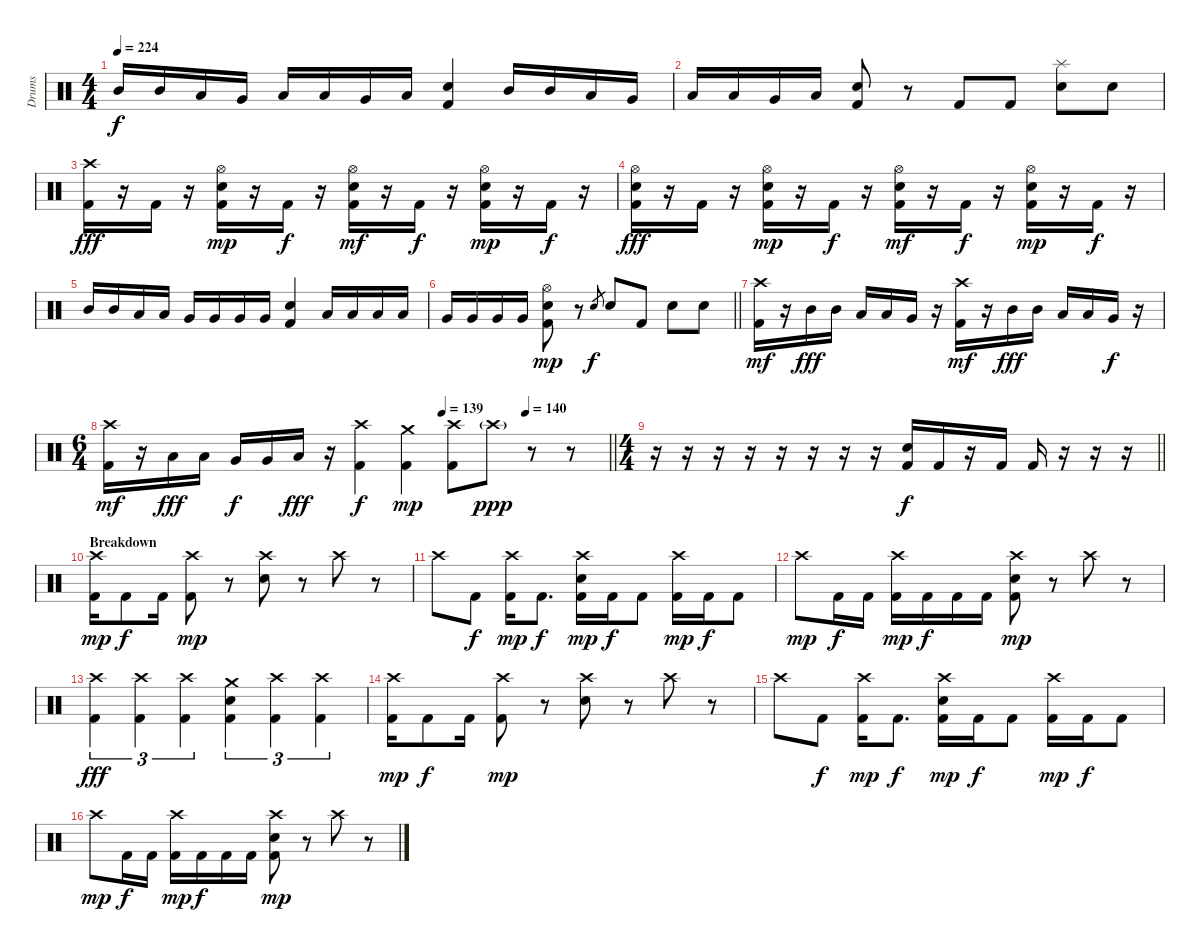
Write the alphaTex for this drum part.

\track ("Drums" "Drums") {instrument percussion}
\staff {score}
\articulation defaults
\ts (4 4)
\tempo 224
\clef neutral
\ks c "Mid Tom (hit)".16{dy f} "Mid Tom (hit)".16 "Low Tom (hit)".16 "Very Low Tom (hit)".16 "Low Tom (hit)".16 "Low Tom (hit)".16 "Very Low Tom (hit)".16 "Low Floor Tom (hit)".16
("Snare (hit) 2" "Kick (hit) 2").4 "Mid Tom (hit)".16 "Mid Tom (hit)".16 "Low Tom (hit)".16 "Very Low Tom (hit)".16 |
"Low Tom (hit)".16 "Low Tom (hit)".16 "Very Low Tom (hit)".16 "Low Floor Tom (hit)".16 ("Snare (hit) 2" "Kick (hit) 2").8 r.8 "Kick (hit) 2".8 "Kick (hit) 2".8 ("Splash (hit)" "Snare (hit) 2").8 "Snare (hit) 2".8 |
("Crash high (hit)" "Kick (hit) 2").16{dy fff} r.16 "Kick (hit) 2".16 r.16 ("Hi-Hat (open)" "Snare (hit) 2" "Kick (hit) 2").16{dy mp} r.16 "Kick (hit) 2".16{dy f} r.16 ("Hi-Hat (open)" "Snare (hit) 2" "Kick (hit) 2").16{dy mf} r.16 "Kick (hit) 2".16{dy f} r.16 ("Hi-Hat (open)" "Snare (hit) 2" "Kick (hit) 2").16{dy mp} r.16 "Kick (hit) 2".16{dy f} r.16 |
("Hi-Hat (open)" "Snare (hit) 2" "Kick (hit) 2").16{dy fff} r.16 "Kick (hit) 2".16 r.16 ("Hi-Hat (open)" "Snare (hit) 2" "Kick (hit) 2").16{dy mp} r.16 "Kick (hit) 2".16{dy f} r.16 ("Hi-Hat (open)" "Snare (hit) 2" "Kick (hit) 2").16{dy mf} r.16 "Kick (hit) 2".16{dy f} r.16 ("Hi-Hat (open)" "Snare (hit) 2" "Kick (hit) 2").16{dy mp} r.16 "Kick (hit) 2".16{dy f} r.16 |
"Mid Tom (hit)".16 "Mid Tom (hit)".16 "Low Tom (hit)".16 "Low Tom (hit)".16 "Very Low Tom (hit)".16 "Very Low Tom (hit)".16 "Very Low Tom (hit)".16 "Very Low Tom (hit)".16 ("Snare (hit) 2" "Kick (hit) 2").4 "Low Tom (hit)".16 "Low Tom (hit)".16 "Low Tom (hit)".16 "Low Tom (hit)".16 |
\barLineRight lightlight "Very Low Tom (hit)".16 "Very Low Tom (hit)".16 "Very Low Tom (hit)".16 "Very Low Tom (hit)".16
("Hi-Hat (open)" "Snare (hit) 2" "Kick (hit) 2").8{dy mp} r.8 "Snare (hit) 2".8{gr dy f} "Snare (hit) 2".8 "Kick (hit) 2".8 "Snare (hit) 2".8 "Snare (hit) 2".8 |
("Crash high (hit)" "Kick (hit) 2").16{dy mf} r.16 "Mid Tom (hit)".16{dy fff} "Mid Tom (hit)".16 "Low Tom (hit)".16 "Low Tom (hit)".16 "Very Low Tom (hit)".16 r.16 ("Crash high (hit)" "Kick (hit) 2").16{dy mf} r.16 "Mid Tom (hit)".16{dy fff} "Mid Tom (hit)".16 "Low Tom (hit)".16 "Low Tom (hit)".16 "Very Low Tom (hit)".16{dy f} r.16 |
\ts (6 4)
\tempo (139 0.6666666666666666)
\tempo (140 0.8333333333333334)
\barLineRight lightlight
("Crash high (hit)" "Kick (hit) 2").16{dy mf} r.16 "Low Tom (hit)".16{dy fff} "Low Tom (hit)".16 "Very Low Tom (hit)".16{dy f} "Very Low Tom (hit)".16 "Low Floor Tom (hit)".16{dy fff} r.16 ("Crash high (hit)" "Kick (hit) 2").4{dy f} ("Crash medium (hit)" "Kick (hit) 2").4{dy mp} ("Crash high (hit)" "Kick (hit) 2").8 "Crash high (hit)"{g}.8{dy ppp} r.8 r.8 |
\ts (4 4)
\barLineRight lightlight
r.16 r.16 r.16 r.16 r.16 r.16 r.16 r.16 ("Snare (hit) 2" "Kick (hit) 2").16{dy f} "Kick (hit) 2".16 r.16 "Kick (hit) 2".16 "Kick (hit) 2".16 r.16 r.16 r.16 |
\section ("" "Breakdown")
("Crash high (hit)" "Kick (hit) 2").16{dy mp} "Kick (hit) 2".8{dy f} "Kick (hit) 2".16 ("Crash high (hit)" "Kick (hit) 2").8{dy mp} r.8 ("Crash high (hit)" "Snare (hit) 2").8 r.8 "Crash high (hit)".8 r.8 |
"Crash high (hit)".8 "Kick (hit) 2".8{dy f} ("Crash high (hit)" "Kick (hit) 2").16{dy mp} "Kick (hit) 2".8{d dy f} ("Crash high (hit)" "Snare (hit) 2" "Kick (hit) 2").16{dy mp} "Kick (hit) 2".16{dy f} "Kick (hit) 2".8 ("Crash high (hit)" "Kick (hit) 2").16{dy mp} "Kick (hit) 2".16{dy f} "Kick (hit) 2".8 |
"Crash high (hit)".8{dy mp} "Kick (hit) 2".16{dy f} "Kick (hit) 2".16 ("Crash high (hit)" "Kick (hit) 2").16{dy mp} "Kick (hit) 2".16{dy f} "Kick (hit) 2".16 "Kick (hit) 2".16 ("Crash high (hit)" "Snare (hit) 2" "Kick (hit) 2").8{dy mp} r.8 "Crash high (hit)".8 r.8 |
("Crash high (hit)" "Kick (hit) 2").4{tu (3 2) dy fff} ("Crash high (hit)" "Kick (hit) 2").4{tu (3 2)} ("Crash high (hit)" "Kick (hit) 2").4{tu (3 2)} ("Crash medium (hit)" "Snare (hit) 2" "Kick (hit) 2").4{tu (3 2)} ("Crash high (hit)" "Kick (hit) 2").4{tu (3 2)} ("Crash high (hit)" "Kick (hit) 2").4{tu (3 2)} |
("Crash high (hit)" "Kick (hit) 2").16{dy mp} "Kick (hit) 2".8{dy f} "Kick (hit) 2".16 ("Crash high (hit)" "Kick (hit) 2").8{dy mp} r.8 ("Crash high (hit)" "Snare (hit) 2").8 r.8 "Crash high (hit)".8 r.8 |
"Crash high (hit)".8 "Kick (hit) 2".8{dy f} ("Crash high (hit)" "Kick (hit) 2").16{dy mp} "Kick (hit) 2".8{d dy f} ("Crash high (hit)" "Snare (hit) 2" "Kick (hit) 2").16{dy mp} "Kick (hit) 2".16{dy f} "Kick (hit) 2".8 ("Crash high (hit)" "Kick (hit) 2").16{dy mp} "Kick (hit) 2".16{dy f} "Kick (hit) 2".8 |
"Crash high (hit)".8{dy mp} "Kick (hit) 2".16{dy f} "Kick (hit) 2".16 ("Crash high (hit)" "Kick (hit) 2").16{dy mp} "Kick (hit) 2".16{dy f} "Kick (hit) 2".16 "Kick (hit) 2".16 ("Crash high (hit)" "Snare (hit) 2" "Kick (hit) 2").8{dy mp} r.8 "Crash high (hit)".8 r.8
